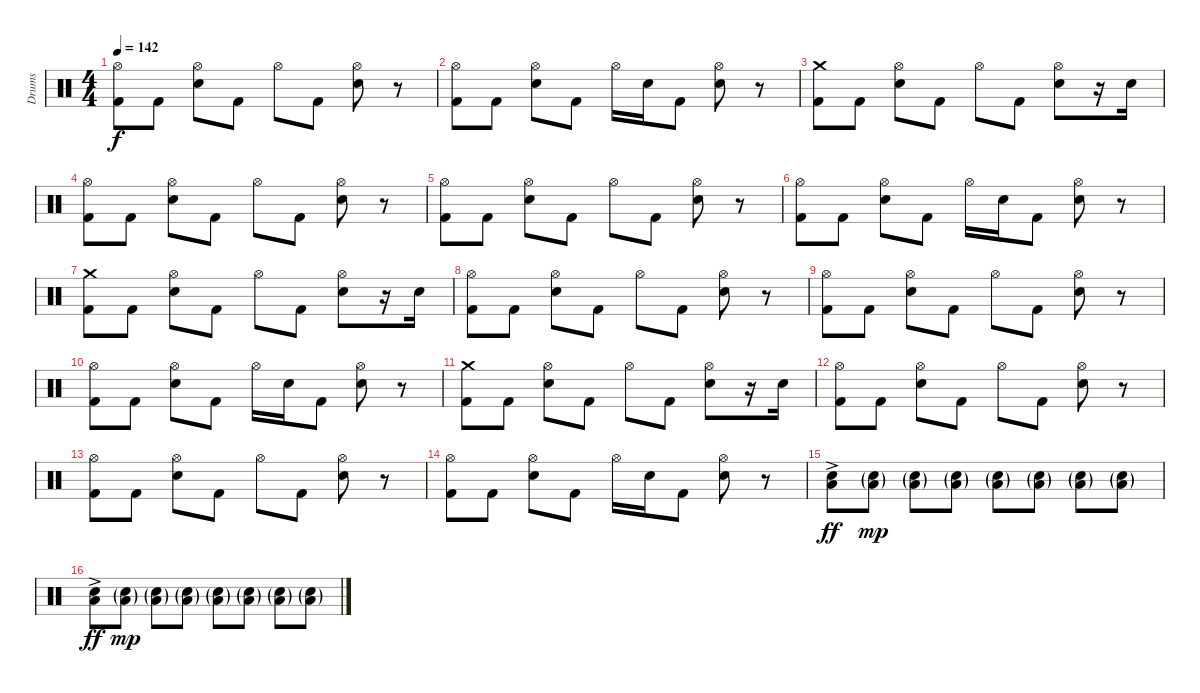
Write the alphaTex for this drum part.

\track ("Drums" "Drums") {instrument percussion}
\staff {score}
\articulation defaults
\ts (4 4)
\tempo 142
\clef neutral
\ks c
("Hi-Hat (open)" "Kick (hit) 2").8{dy f} "Kick (hit) 2".8 ("Hi-Hat (open)" "Snare (hit) 2").8 "Kick (hit) 2".8 "Hi-Hat (open)".8 "Kick (hit) 2".8 ("Hi-Hat (open)" "Snare (hit) 2").8 r.8 |
("Hi-Hat (open)" "Kick (hit) 2").8 "Kick (hit) 2".8 ("Hi-Hat (open)" "Snare (hit) 2").8 "Kick (hit) 2".8 "Hi-Hat (open)".16 "Snare (hit) 2".16 "Kick (hit) 2".8 ("Hi-Hat (open)" "Snare (hit) 2").8 r.8 |
("Crash medium (hit)" "Kick (hit) 2").8 "Kick (hit) 2".8 ("Hi-Hat (open)" "Snare (hit) 2").8 "Kick (hit) 2".8 "Hi-Hat (open)".8 "Kick (hit) 2".8 ("Hi-Hat (open)" "Snare (hit) 2").8 r.16 "Snare (hit) 2".16 |
("Hi-Hat (open)" "Kick (hit) 2").8 "Kick (hit) 2".8 ("Hi-Hat (open)" "Snare (hit) 2").8 "Kick (hit) 2".8 "Hi-Hat (open)".8 "Kick (hit) 2".8 ("Hi-Hat (open)" "Snare (hit) 2").8 r.8 |
("Hi-Hat (open)" "Kick (hit) 2").8 "Kick (hit) 2".8 ("Hi-Hat (open)" "Snare (hit) 2").8 "Kick (hit) 2".8 "Hi-Hat (open)".8 "Kick (hit) 2".8 ("Hi-Hat (open)" "Snare (hit) 2").8 r.8 |
("Hi-Hat (open)" "Kick (hit) 2").8 "Kick (hit) 2".8 ("Hi-Hat (open)" "Snare (hit) 2").8 "Kick (hit) 2".8 "Hi-Hat (open)".16 "Snare (hit) 2".16 "Kick (hit) 2".8 ("Hi-Hat (open)" "Snare (hit) 2").8 r.8 |
("Crash medium (hit)" "Kick (hit) 2").8 "Kick (hit) 2".8 ("Hi-Hat (open)" "Snare (hit) 2").8 "Kick (hit) 2".8 "Hi-Hat (open)".8 "Kick (hit) 2".8 ("Hi-Hat (open)" "Snare (hit) 2").8 r.16 "Snare (hit) 2".16 |
("Hi-Hat (open)" "Kick (hit) 2").8 "Kick (hit) 2".8 ("Hi-Hat (open)" "Snare (hit) 2").8 "Kick (hit) 2".8 "Hi-Hat (open)".8 "Kick (hit) 2".8 ("Hi-Hat (open)" "Snare (hit) 2").8 r.8 |
("Hi-Hat (open)" "Kick (hit) 2").8 "Kick (hit) 2".8 ("Hi-Hat (open)" "Snare (hit) 2").8 "Kick (hit) 2".8 "Hi-Hat (open)".8 "Kick (hit) 2".8 ("Hi-Hat (open)" "Snare (hit) 2").8 r.8 |
("Hi-Hat (open)" "Kick (hit) 2").8 "Kick (hit) 2".8 ("Hi-Hat (open)" "Snare (hit) 2").8 "Kick (hit) 2".8 "Hi-Hat (open)".16 "Snare (hit) 2".16 "Kick (hit) 2".8 ("Hi-Hat (open)" "Snare (hit) 2").8 r.8 |
("Crash medium (hit)" "Kick (hit) 2").8 "Kick (hit) 2".8 ("Hi-Hat (open)" "Snare (hit) 2").8 "Kick (hit) 2".8 "Hi-Hat (open)".8 "Kick (hit) 2".8 ("Hi-Hat (open)" "Snare (hit) 2").8 r.16 "Snare (hit) 2".16 |
("Hi-Hat (open)" "Kick (hit) 2").8 "Kick (hit) 2".8 ("Hi-Hat (open)" "Snare (hit) 2").8 "Kick (hit) 2".8 "Hi-Hat (open)".8 "Kick (hit) 2".8 ("Hi-Hat (open)" "Snare (hit) 2").8 r.8 |
("Hi-Hat (open)" "Kick (hit) 2").8 "Kick (hit) 2".8 ("Hi-Hat (open)" "Snare (hit) 2").8 "Kick (hit) 2".8 "Hi-Hat (open)".8 "Kick (hit) 2".8 ("Hi-Hat (open)" "Snare (hit) 2").8 r.8 |
("Hi-Hat (open)" "Kick (hit) 2").8 "Kick (hit) 2".8 ("Hi-Hat (open)" "Snare (hit) 2").8 "Kick (hit) 2".8 "Hi-Hat (open)".16 "Snare (hit) 2".16 "Kick (hit) 2".8 ("Hi-Hat (open)" "Snare (hit) 2").8 r.8 |
("Low Floor Tom (hit)"{ac} "Snare (hit) 2").8{dy ff} ("Low Floor Tom (hit)"{g} "Snare (hit) 2"{g}).8{dy mp} ("Low Floor Tom (hit)"{g} "Snare (hit) 2"{g}).8 ("Low Floor Tom (hit)"{g} "Snare (hit) 2"{g}).8 ("Low Floor Tom (hit)"{g} "Snare (hit) 2"{g}).8 ("Low Floor Tom (hit)"{g} "Snare (hit) 2"{g}).8 ("Low Floor Tom (hit)"{g} "Snare (hit) 2"{g}).8 ("Low Floor Tom (hit)"{g} "Snare (hit) 2"{g}).8 |
("Low Floor Tom (hit)"{ac} "Snare (hit) 2").8{dy ff} ("Low Floor Tom (hit)"{g} "Snare (hit) 2"{g}).8{dy mp} ("Low Floor Tom (hit)"{g} "Snare (hit) 2"{g}).8 ("Low Floor Tom (hit)"{g} "Snare (hit) 2"{g}).8 ("Low Floor Tom (hit)"{g} "Snare (hit) 2"{g}).8 ("Low Floor Tom (hit)"{g} "Snare (hit) 2"{g}).8 ("Low Floor Tom (hit)"{g} "Snare (hit) 2"{g}).8 ("Low Floor Tom (hit)"{g} "Snare (hit) 2"{g}).8
